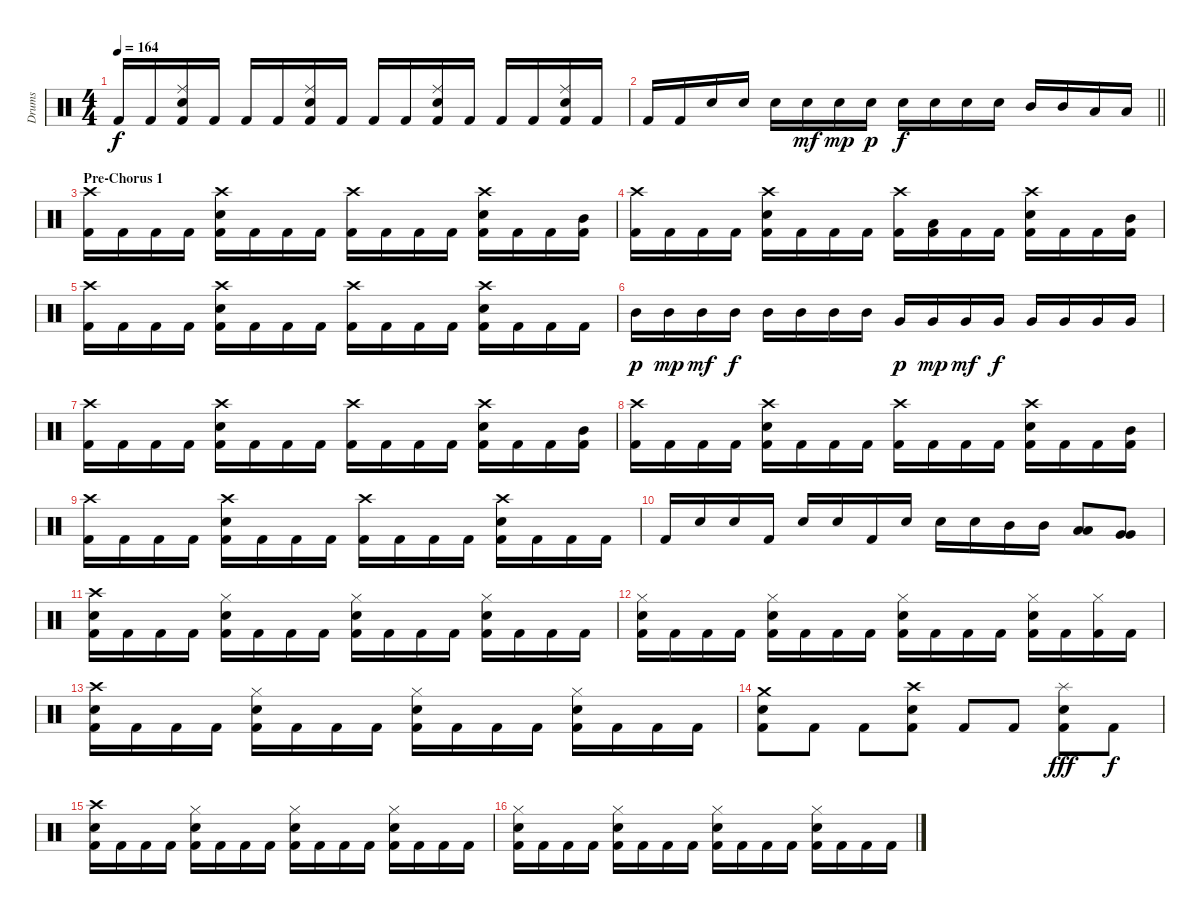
\track ("Drums" "Drums") {instrument percussion}
\staff {score}
\articulation defaults
\ts (4 4)
\tempo 164
\clef neutral
\ks c "Kick (hit) 2".16{dy f} "Kick (hit) 2".16
("Ride (middle)" "Electric Snare (hit)" "Kick (hit) 2").16 "Kick (hit) 2".16 "Kick (hit) 2".16 "Kick (hit) 2".16 ("Ride (middle)" "Electric Snare (hit)" "Kick (hit) 2").16 "Kick (hit) 2".16 "Kick (hit) 2".16 "Kick (hit) 2".16 ("Ride (middle)" "Electric Snare (hit)" "Kick (hit) 2").16 "Kick (hit) 2".16 "Kick (hit) 2".16 "Kick (hit) 2".16 ("Ride (middle)" "Electric Snare (hit)" "Kick (hit) 2").16 "Kick (hit) 2".16 |
\barLineRight lightlight "Kick (hit) 2".16 "Kick (hit) 2".16 "Electric Snare (hit)".16 "Electric Snare (hit)".16 "Electric Snare (hit)".16 "Electric Snare (hit)".16{dy mf} "Electric Snare (hit)".16{dy mp} "Electric Snare (hit)".16{dy p} "Electric Snare (hit)".16{dy f} "Electric Snare (hit)".16 "Electric Snare (hit)".16 "Electric Snare (hit)".16 "Mid Tom (hit)".16 "Mid Tom (hit)".16 "Low Tom (hit)".16 "Low Tom (hit)".16
|
\section ("" "Pre-Chorus 1")
("Crash high (hit)" "Kick (hit) 2").16 "Kick (hit) 2".16 "Kick (hit) 2".16 "Kick (hit) 2".16 ("Crash high (hit)" "Electric Snare (hit)" "Kick (hit) 2").16 "Kick (hit) 2".16 "Kick (hit) 2".16 "Kick (hit) 2".16 ("Crash high (hit)" "Kick (hit) 2").16 "Kick (hit) 2".16 "Kick (hit) 2".16 "Kick (hit) 2".16 ("Crash high (hit)" "Electric Snare (hit)" "Kick (hit) 2").16 "Kick (hit) 2".16 "Kick (hit) 2".16 ("Mid Tom (hit)" "Kick (hit) 2").16 |
("Crash high (hit)" "Kick (hit) 2").16 "Kick (hit) 2".16 "Kick (hit) 2".16 "Kick (hit) 2".16 ("Crash high (hit)" "Electric Snare (hit)" "Kick (hit) 2").16 "Kick (hit) 2".16 "Kick (hit) 2".16 "Kick (hit) 2".16 ("Crash high (hit)" "Kick (hit) 2").16 ("Low Tom (hit)" "Kick (hit) 2").16 "Kick (hit) 2".16 "Kick (hit) 2".16 ("Crash high (hit)" "Electric Snare (hit)" "Kick (hit) 2").16 "Kick (hit) 2".16 "Kick (hit) 2".16 ("Mid Tom (hit)" "Kick (hit) 2").16 |
("Crash high (hit)" "Kick (hit) 2").16 "Kick (hit) 2".16 "Kick (hit) 2".16 "Kick (hit) 2".16 ("Crash high (hit)" "Electric Snare (hit)" "Kick (hit) 2").16 "Kick (hit) 2".16 "Kick (hit) 2".16 "Kick (hit) 2".16 ("Crash high (hit)" "Kick (hit) 2").16 "Kick (hit) 2".16 "Kick (hit) 2".16 "Kick (hit) 2".16 ("Crash high (hit)" "Electric Snare (hit)" "Kick (hit) 2").16 "Kick (hit) 2".16 "Kick (hit) 2".16 "Kick (hit) 2".16 |
"Mid Tom (hit)".16{dy p} "Mid Tom (hit)".16{dy mp} "Mid Tom (hit)".16{dy mf} "Mid Tom (hit)".16{dy f} "Mid Tom (hit)".16 "Mid Tom (hit)".16 "Mid Tom (hit)".16 "Mid Tom (hit)".16 "Very Low Tom (hit)".16{dy p} "Very Low Tom (hit)".16{dy mp} "Very Low Tom (hit)".16{dy mf} "Very Low Tom (hit)".16{dy f} "Very Low Tom (hit)".16 "Very Low Tom (hit)".16 "Very Low Tom (hit)".16 "Very Low Tom (hit)".16 |
("Crash high (hit)" "Kick (hit) 2").16 "Kick (hit) 2".16 "Kick (hit) 2".16 "Kick (hit) 2".16 ("Crash high (hit)" "Electric Snare (hit)" "Kick (hit) 2").16 "Kick (hit) 2".16 "Kick (hit) 2".16 "Kick (hit) 2".16 ("Crash high (hit)" "Kick (hit) 2").16 "Kick (hit) 2".16 "Kick (hit) 2".16 "Kick (hit) 2".16 ("Crash high (hit)" "Electric Snare (hit)" "Kick (hit) 2").16 "Kick (hit) 2".16 "Kick (hit) 2".16 ("Mid Tom (hit)" "Kick (hit) 2").16 |
("Crash high (hit)" "Kick (hit) 2").16 "Kick (hit) 2".16 "Kick (hit) 2".16 "Kick (hit) 2".16 ("Crash high (hit)" "Electric Snare (hit)" "Kick (hit) 2").16 "Kick (hit) 2".16 "Kick (hit) 2".16 "Kick (hit) 2".16 ("Crash high (hit)" "Kick (hit) 2").16 "Kick (hit) 2".16 "Kick (hit) 2".16 "Kick (hit) 2".16 ("Crash high (hit)" "Electric Snare (hit)" "Kick (hit) 2").16 "Kick (hit) 2".16 "Kick (hit) 2".16 ("Mid Tom (hit)" "Kick (hit) 2").16 |
("Crash high (hit)" "Kick (hit) 2").16 "Kick (hit) 2".16 "Kick (hit) 2".16 "Kick (hit) 2".16 ("Crash high (hit)" "Electric Snare (hit)" "Kick (hit) 2").16 "Kick (hit) 2".16 "Kick (hit) 2".16 "Kick (hit) 2".16 ("Crash high (hit)" "Kick (hit) 2").16 "Kick (hit) 2".16 "Kick (hit) 2".16 "Kick (hit) 2".16 ("Crash high (hit)" "Electric Snare (hit)" "Kick (hit) 2").16 "Kick (hit) 2".16 "Kick (hit) 2".16 "Kick (hit) 2".16 |
"Kick (hit) 2".16 "Electric Snare (hit)".16 "Electric Snare (hit)".16 "Kick (hit) 2".16 "Electric Snare (hit)".16 "Electric Snare (hit)".16 "Kick (hit) 2".16 "Electric Snare (hit)".16 "Electric Snare (hit)".16 "Electric Snare (hit)".16 "Mid Tom (hit)".16 "Mid Tom (hit)".16 ("Low Tom (hit)" "Low Tom (hit)").8{bu 60} ("Very Low Tom (hit)" "Very Low Tom (hit)").8{bu 60} |
("Crash high (hit)" "Electric Snare (hit)" "Kick (hit) 2").16 "Kick (hit) 2".16 "Kick (hit) 2".16 "Kick (hit) 2".16 ("Hi-Hat (closed)" "Electric Snare (hit)" "Kick (hit) 2").16 "Kick (hit) 2".16 "Kick (hit) 2".16 "Kick (hit) 2".16 ("Hi-Hat (closed)" "Electric Snare (hit)" "Kick (hit) 2").16 "Kick (hit) 2".16 "Kick (hit) 2".16 "Kick (hit) 2".16 ("Hi-Hat (closed)" "Electric Snare (hit)" "Kick (hit) 2").16 "Kick (hit) 2".16 "Kick (hit) 2".16 "Kick (hit) 2".16 |
("Hi-Hat (closed)" "Electric Snare (hit)" "Kick (hit) 2").16 "Kick (hit) 2".16 "Kick (hit) 2".16 "Kick (hit) 2".16 ("Hi-Hat (closed)" "Electric Snare (hit)" "Kick (hit) 2").16 "Kick (hit) 2".16 "Kick (hit) 2".16 "Kick (hit) 2".16 ("Hi-Hat (closed)" "Electric Snare (hit)" "Kick (hit) 2").16 "Kick (hit) 2".16 "Kick (hit) 2".16 "Kick (hit) 2".16 ("Hi-Hat (closed)" "Electric Snare (hit)" "Kick (hit) 2").16 "Kick (hit) 2".16 ("Hi-Hat (closed)" "Kick (hit) 2").16 "Kick (hit) 2".16 |
("Crash high (hit)" "Electric Snare (hit)" "Kick (hit) 2").16 "Kick (hit) 2".16 "Kick (hit) 2".16 "Kick (hit) 2".16 ("Hi-Hat (closed)" "Electric Snare (hit)" "Kick (hit) 2").16 "Kick (hit) 2".16 "Kick (hit) 2".16 "Kick (hit) 2".16 ("Hi-Hat (closed)" "Electric Snare (hit)" "Kick (hit) 2").16 "Kick (hit) 2".16 "Kick (hit) 2".16 "Kick (hit) 2".16 ("Hi-Hat (closed)" "Electric Snare (hit)" "Kick (hit) 2").16 "Kick (hit) 2".16 "Kick (hit) 2".16 "Kick (hit) 2".16 |
("Crash medium (hit)" "Electric Snare (hit)" "Kick (hit) 2").8 "Kick (hit) 2".8 "Kick (hit) 2".8 ("Crash high (hit)" "Electric Snare (hit)" "Kick (hit) 2").8 "Kick (hit) 2".8 "Kick (hit) 2".8 ("Splash (hit)" "Electric Snare (hit)" "Kick (hit) 2").8{dy fff} "Kick (hit) 2".8{dy f} |
("Crash high (hit)" "Electric Snare (hit)" "Kick (hit) 2").16 "Kick (hit) 2".16 "Kick (hit) 2".16 "Kick (hit) 2".16 ("Hi-Hat (closed)" "Electric Snare (hit)" "Kick (hit) 2").16 "Kick (hit) 2".16 "Kick (hit) 2".16 "Kick (hit) 2".16 ("Hi-Hat (closed)" "Electric Snare (hit)" "Kick (hit) 2").16 "Kick (hit) 2".16 "Kick (hit) 2".16 "Kick (hit) 2".16 ("Hi-Hat (closed)" "Electric Snare (hit)" "Kick (hit) 2").16 "Kick (hit) 2".16 "Kick (hit) 2".16 "Kick (hit) 2".16 |
("Hi-Hat (closed)" "Electric Snare (hit)" "Kick (hit) 2").16 "Kick (hit) 2".16 "Kick (hit) 2".16 "Kick (hit) 2".16 ("Hi-Hat (closed)" "Electric Snare (hit)" "Kick (hit) 2").16 "Kick (hit) 2".16 "Kick (hit) 2".16 "Kick (hit) 2".16 ("Hi-Hat (closed)" "Electric Snare (hit)" "Kick (hit) 2").16 "Kick (hit) 2".16 "Kick (hit) 2".16 "Kick (hit) 2".16 ("Hi-Hat (closed)" "Electric Snare (hit)" "Kick (hit) 2").16 "Kick (hit) 2".16 "Kick (hit) 2".16 "Kick (hit) 2".16
